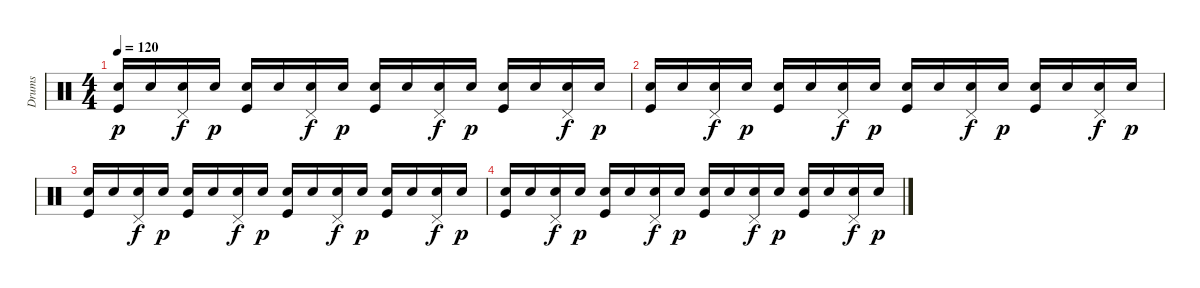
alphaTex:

\defaultSystemsLayout 4
\track ("Drumkit" "Drums") {instrument percussion}
\staff {score}
\articulation defaults
\ts (4 4)
\tempo 120
\clef neutral
\scale
0.333333
\ks c
("Snare (hit) 2" "Kick (hit)").16{dy p} "Snare (hit) 2".16 ("Snare (hit) 2" "Pedal Hi-Hat (hit)").16{dy f} "Snare (hit) 2".16{dy p} ("Snare (hit) 2" "Kick (hit)").16 "Snare (hit) 2".16 ("Snare (hit) 2" "Pedal Hi-Hat (hit)").16{dy f} "Snare (hit) 2".16{dy p} ("Snare (hit) 2" "Kick (hit)").16 "Snare (hit) 2".16 ("Snare (hit) 2" "Pedal Hi-Hat (hit)").16{dy f} "Snare (hit) 2".16{dy p} ("Snare (hit) 2" "Kick (hit)").16 "Snare (hit) 2".16 ("Snare (hit) 2" "Pedal Hi-Hat (hit)").16{dy f} "Snare (hit) 2".16{dy p} |
\scale
0.333333 ("Snare (hit) 2" "Kick (hit)").16 "Snare (hit) 2".16 ("Snare (hit) 2" "Pedal Hi-Hat (hit)").16{dy f} "Snare (hit) 2".16{dy p} ("Snare (hit) 2" "Kick (hit)").16 "Snare (hit) 2".16 ("Snare (hit) 2" "Pedal Hi-Hat (hit)").16{dy f} "Snare (hit) 2".16{dy p} ("Snare (hit) 2" "Kick (hit)").16 "Snare (hit) 2".16 ("Snare (hit) 2" "Pedal Hi-Hat (hit)").16{dy f} "Snare (hit) 2".16{dy p} ("Snare (hit) 2" "Kick (hit)").16 "Snare (hit) 2".16 ("Snare (hit) 2" "Pedal Hi-Hat (hit)").16{dy f} "Snare (hit) 2".16{dy p} |
("Snare (hit) 2" "Kick (hit)").16 "Snare (hit) 2".16 ("Snare (hit) 2" "Pedal Hi-Hat (hit)").16{dy f} "Snare (hit) 2".16{dy p} ("Snare (hit) 2" "Kick (hit)").16 "Snare (hit) 2".16 ("Snare (hit) 2" "Pedal Hi-Hat (hit)").16{dy f} "Snare (hit) 2".16{dy p} ("Snare (hit) 2" "Kick (hit)").16 "Snare (hit) 2".16 ("Snare (hit) 2" "Pedal Hi-Hat (hit)").16{dy f} "Snare (hit) 2".16{dy p} ("Snare (hit) 2" "Kick (hit)").16 "Snare (hit) 2".16 ("Snare (hit) 2" "Pedal Hi-Hat (hit)").16{dy f} "Snare (hit) 2".16{dy p} |
("Snare (hit) 2" "Kick (hit)").16 "Snare (hit) 2".16 ("Snare (hit) 2" "Pedal Hi-Hat (hit)").16{dy f} "Snare (hit) 2".16{dy p} ("Snare (hit) 2" "Kick (hit)").16 "Snare (hit) 2".16 ("Snare (hit) 2" "Pedal Hi-Hat (hit)").16{dy f} "Snare (hit) 2".16{dy p} ("Snare (hit) 2" "Kick (hit)").16 "Snare (hit) 2".16 ("Snare (hit) 2" "Pedal Hi-Hat (hit)").16{dy f} "Snare (hit) 2".16{dy p} ("Snare (hit) 2" "Kick (hit)").16 "Snare (hit) 2".16 ("Snare (hit) 2" "Pedal Hi-Hat (hit)").16{dy f} "Snare (hit) 2".16{dy p}
